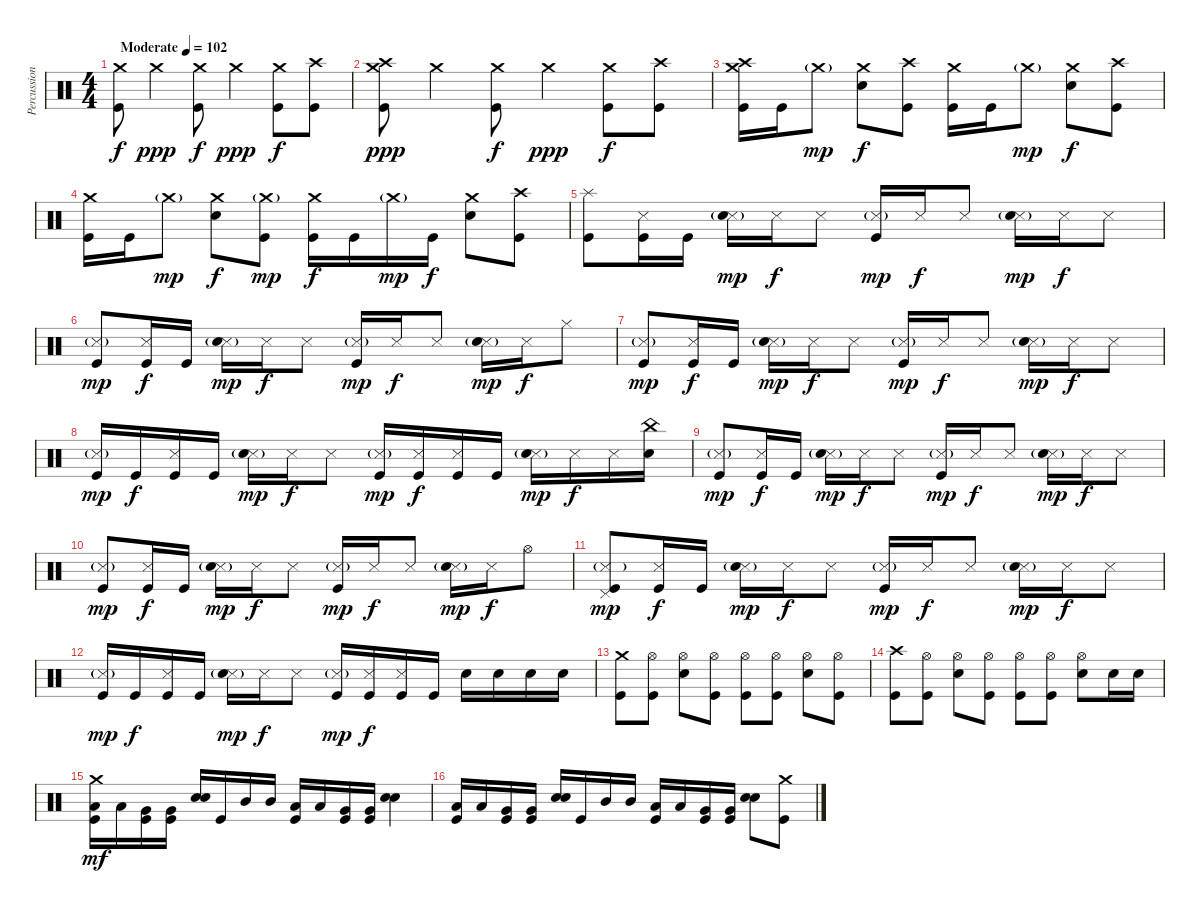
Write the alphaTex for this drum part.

\track ("Percussion" "Percussion") {instrument percussion}
\staff {score}
\articulation defaults
\ts (4 4)
\tempo (102 "Moderate")
\clef neutral
\ks c
("Crash medium (hit)" "Kick (hit)").8{dy f} "Crash medium (hit)".4{dy ppp} ("Crash medium (hit)" "Kick (hit)").8{dy f} "Crash medium (hit)".4{dy ppp} ("Crash medium (hit)" "Kick (hit)").8{dy f} ("Crash high (hit)" "Kick (hit)").8 |
("Crash medium (hit)" "Crash high (hit)" "Kick (hit)").8{dy ppp} "Crash medium (hit)".4 ("Crash medium (hit)" "Kick (hit)").8{dy f} "Crash medium (hit)".4{dy ppp} ("Crash medium (hit)" "Kick (hit)").8{dy f} ("Crash high (hit)" "Kick (hit)").8 |
("Crash medium (hit)" "Crash high (hit)" "Kick (hit)").16 "Kick (hit)".16 "Crash medium (hit)"{g}.8{dy mp} ("Crash medium (hit)" "Snare (hit) 2").8{dy f} ("Crash high (hit)" "Kick (hit)").8 ("Crash medium (hit)" "Kick (hit)").16 "Kick (hit)".16 "Crash medium (hit)"{g}.8{dy mp} ("Crash medium (hit)" "Snare (hit) 2").8{dy f} ("Crash high (hit)" "Kick (hit)").8 |
("Crash medium (hit)" "Kick (hit)").16 "Kick (hit)".16 "Crash medium (hit)"{g}.8{dy mp} ("Crash medium (hit)" "Snare (hit) 2").8{dy f} ("Crash medium (hit)"{g} "Kick (hit)").8{dy mp} ("Crash medium (hit)" "Kick (hit)").16{dy f} "Kick (hit)".16 "Crash medium (hit)"{g}.16{dy mp} "Kick (hit)".16{dy f} ("Crash medium (hit)" "Snare (hit) 2").8 ("Crash high (hit)" "Kick (hit)").8 |
("Splash (hit)" "Kick (hit)").8 ("Snare (side stick) 3" "Kick (hit)").16 "Kick (hit)".16 ("Snare (side stick) 3"{g} "Snare (hit) 2").16{dy mp} "Snare (side stick) 3".16{dy f} "Snare (side stick) 3".8 ("Snare (side stick) 3"{g} "Kick (hit)").16{dy mp} "Snare (side stick) 3".16{dy f} "Snare (side stick) 3".8 ("Snare (side stick) 3"{g} "Snare (hit) 2").16{dy mp} "Snare (side stick) 3".16{dy f} "Snare (side stick) 3".8 |
("Snare (side stick) 3"{g} "Kick (hit)").8{dy mp} ("Snare (side stick) 3" "Kick (hit)").16{dy f} "Kick (hit)".16 ("Snare (side stick) 3"{g} "Snare (hit) 2").16{dy mp} "Snare (side stick) 3".16{dy f} "Snare (side stick) 3".8 ("Snare (side stick) 3"{g} "Kick (hit)").16{dy mp} "Snare (side stick) 3".16{dy f} "Snare (side stick) 3".8 ("Snare (side stick) 3"{g} "Snare (hit) 2").16{dy mp} "Snare (side stick) 3".16{dy f} "Hi-Hat (closed)".8 |
("Snare (side stick) 3"{g} "Kick (hit)").8{dy mp} ("Snare (side stick) 3" "Kick (hit)").16{dy f} "Kick (hit)".16 ("Snare (side stick) 3"{g} "Snare (hit) 2").16{dy mp} "Snare (side stick) 3".16{dy f} "Snare (side stick) 3".8 ("Snare (side stick) 3"{g} "Kick (hit)").16{dy mp} "Snare (side stick) 3".16{dy f} "Snare (side stick) 3".8 ("Snare (side stick) 3"{g} "Snare (hit) 2").16{dy mp} "Snare (side stick) 3".16{dy f} "Snare (side stick) 3".8 |
("Snare (side stick) 3"{g} "Kick (hit)").16{dy mp} "Kick (hit)".16{dy f} ("Snare (side stick) 3" "Kick (hit)").16 "Kick (hit)".16 ("Snare (side stick) 3"{g} "Snare (hit) 2").16{dy mp} "Snare (side stick) 3".16{dy f} "Snare (side stick) 3".8 ("Snare (side stick) 3"{g} "Kick (hit)").16{dy mp} ("Snare (side stick) 3" "Kick (hit)").16{dy f} ("Snare (side stick) 3" "Kick (hit)").16 "Kick (hit)".16 ("Snare (side stick) 3"{g} "Snare (hit) 2").16{dy mp} "Snare (side stick) 3".16{dy f} "Snare (side stick) 3".16 ("China (hit)" "Snare (hit) 2").16 |
("Snare (side stick) 3"{g} "Kick (hit)").8{dy mp} ("Snare (side stick) 3" "Kick (hit)").16{dy f} "Kick (hit)".16 ("Snare (side stick) 3"{g} "Snare (hit) 2").16{dy mp} "Snare (side stick) 3".16{dy f} "Snare (side stick) 3".8 ("Snare (side stick) 3"{g} "Kick (hit)").16{dy mp} "Snare (side stick) 3".16{dy f} "Snare (side stick) 3".8 ("Snare (side stick) 3"{g} "Snare (hit) 2").16{dy mp} "Snare (side stick) 3".16{dy f} "Snare (side stick) 3".8 |
("Snare (side stick) 3"{g} "Kick (hit)").8{dy mp} ("Snare (side stick) 3" "Kick (hit)").16{dy f} "Kick (hit)".16 ("Snare (side stick) 3"{g} "Snare (hit) 2").16{dy mp} "Snare (side stick) 3".16{dy f} "Snare (side stick) 3".8 ("Snare (side stick) 3"{g} "Kick (hit)").16{dy mp} "Snare (side stick) 3".16{dy f} "Snare (side stick) 3".8 ("Snare (side stick) 3"{g} "Snare (hit) 2").16{dy mp} "Snare (side stick) 3".16{dy f} "Hi-Hat (open)".8 |
("Pedal Hi-Hat (hit)" "Snare (side stick) 3"{g} "Kick (hit)").8{dy mp} ("Snare (side stick) 3" "Kick (hit)").16{dy f} "Kick (hit)".16 ("Snare (side stick) 3"{g} "Snare (hit) 2").16{dy mp} "Snare (side stick) 3".16{dy f} "Snare (side stick) 3".8 ("Snare (side stick) 3"{g} "Kick (hit)").16{dy mp} "Snare (side stick) 3".16{dy f} "Snare (side stick) 3".8 ("Snare (side stick) 3"{g} "Snare (hit) 2").16{dy mp} "Snare (side stick) 3".16{dy f} "Snare (side stick) 3".8 |
("Snare (side stick) 3"{g} "Kick (hit)").16{dy mp} "Kick (hit)".16{dy f} ("Snare (side stick) 3" "Kick (hit)").16 "Kick (hit)".16 ("Snare (side stick) 3"{g} "Snare (hit) 2").16{dy mp} "Snare (side stick) 3".16{dy f} "Snare (side stick) 3".8 ("Snare (side stick) 3"{g} "Kick (hit)").16{dy mp} ("Snare (side stick) 3" "Kick (hit)").16{dy f} ("Snare (side stick) 3" "Kick (hit)").16 "Kick (hit)".16 "Snare (hit) 2".16 "Snare (hit) 2".16 "Snare (hit) 2".16 "Snare (hit) 2".16 |
("Crash medium (hit)" "Kick (hit)").8 ("Hi-Hat (open)" "Kick (hit)").8 ("Hi-Hat (open)" "Snare (hit) 2").8 ("Hi-Hat (open)" "Kick (hit)").8 ("Hi-Hat (open)" "Kick (hit)").8 ("Hi-Hat (open)" "Kick (hit)").8 ("Hi-Hat (open)" "Snare (hit) 2").8 ("Hi-Hat (open)" "Kick (hit)").8 |
("Crash high (hit)" "Kick (hit)").8 ("Hi-Hat (open)" "Kick (hit)").8 ("Hi-Hat (open)" "Snare (hit) 2").8 ("Hi-Hat (open)" "Kick (hit)").8 ("Hi-Hat (open)" "Kick (hit)").8 ("Hi-Hat (open)" "Kick (hit)").8 ("Hi-Hat (open)" "Snare (hit) 2").8 "Snare (hit) 2".16 "Snare (hit) 2".16 |
("Crash medium (hit)" "Low Tom (hit)" "Kick (hit)").16{dy mf} "Low Tom (hit)".16 ("Very Low Tom (hit)" "Kick (hit)").16 ("Very Low Tom (hit)" "Kick (hit)").16 ("Snare (hit) 2" "Snare (hit) 2").16 "Kick (hit)".16 "Mid Tom (hit)".16 "Mid Tom (hit)".16 ("Low Tom (hit)" "Kick (hit)").16 "Low Tom (hit)".16 ("Very Low Tom (hit)" "Kick (hit)").16 ("Very Low Tom (hit)" "Kick (hit)").16 ("Snare (hit) 2" "Snare (hit) 2").4 |
("Low Tom (hit)" "Kick (hit)").16 "Low Tom (hit)".16 ("Very Low Tom (hit)" "Kick (hit)").16 ("Very Low Tom (hit)" "Kick (hit)").16 ("Snare (hit) 2" "Snare (hit) 2").16 "Kick (hit)".16 "Mid Tom (hit)".16 "Mid Tom (hit)".16 ("Low Tom (hit)" "Kick (hit)").16 "Low Tom (hit)".16 ("Very Low Tom (hit)" "Kick (hit)").16 ("Very Low Tom (hit)" "Kick (hit)").16 ("Snare (hit) 2" "Snare (hit) 2").8 ("Crash medium (hit)" "Kick (hit)").8
